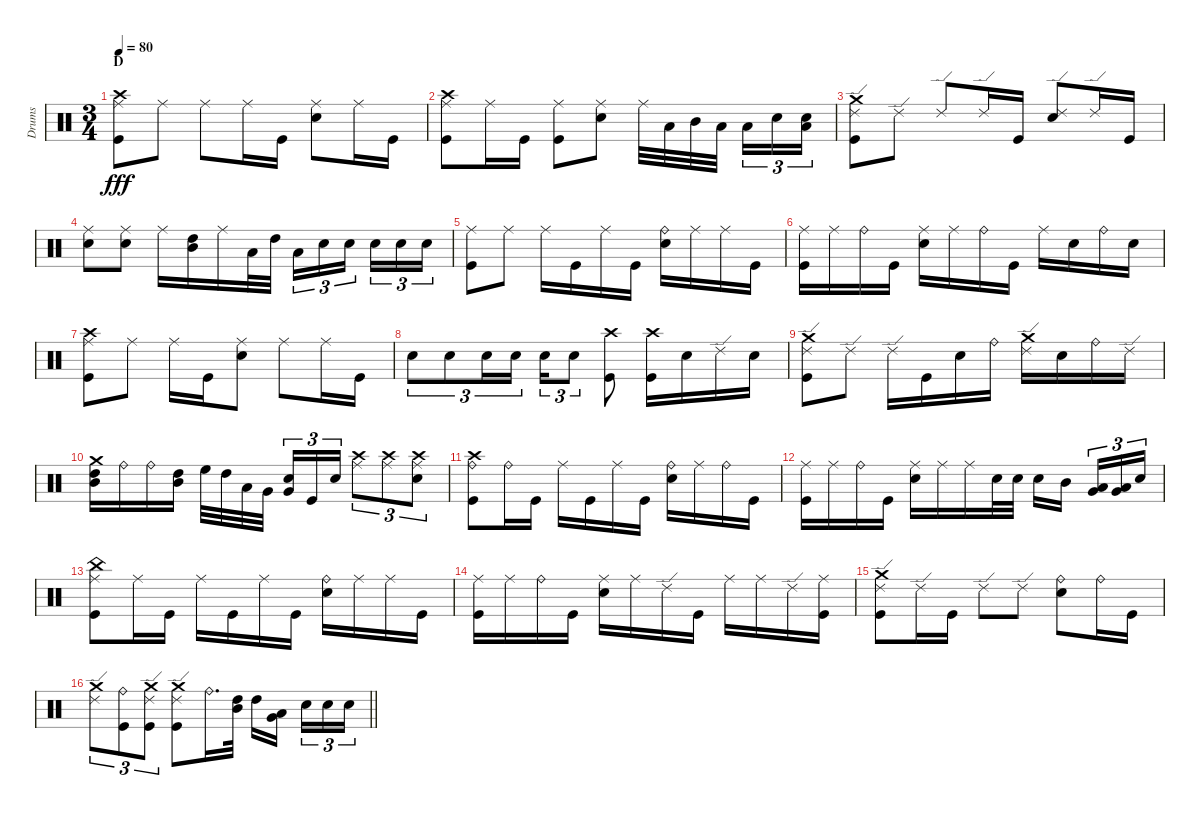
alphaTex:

\track ("Drums" "Drums") {instrument percussion}
\staff {score}
\articulation defaults
\ts (3 4)
\section ("" "D")
\tempo 80
\clef neutral
\ks c
("Ride (middle)" "Crash high (hit)" "Kick (hit)").8{dy fff} "Ride (middle)".8 "Ride (middle)".8 "Ride (middle)".16 "Kick (hit)".16 ("Ride (middle)" "Snare (hit) 2").8 "Ride (middle)".16 "Kick (hit)".16 |
("Ride (middle)" "Crash high (hit)" "Kick (hit)").8 "Ride (middle)".16 "Kick (hit)".16 ("Ride (middle)" "Kick (hit)").8 ("Ride (middle)" "Snare (hit) 2").8 "Ride (middle)".32 "Low Tom (hit)".32 "Mid Tom (hit)".32 "Low Tom (hit)".32 "Low Floor Tom (hit)".16{tu (3 2)} "Snare (hit) 2".16{tu (3 2)} ("Low Floor Tom (hit)" "Snare (hit) 2").16{tu (3 2)} |
("Ride (edge) 2" "Crash medium (hit)" "Kick (hit)").8 "Ride (edge) 2".8 "Ride (edge) 2".8 "Ride (edge) 2".16 "Kick (hit)".16 ("Ride (edge) 2" "Snare (hit) 2").8 "Ride (edge) 2".16 "Kick (hit)".16 |
("Ride (middle)" "Snare (hit) 2").8 ("Ride (middle)" "Snare (hit) 2").8 "Ride (middle)".16 ("High Tom (hit)" "Mid Tom (hit)").16 "Ride (middle)".16 "Low Tom (hit)".32 "High Tom (hit)".32 "Low Floor Tom (hit)".16{tu (3 2)} "Snare (hit) 2".16{tu (3 2)} "Snare (hit) 2".16{tu (3 2)} "Snare (hit) 2".16{tu (3 2)} "Snare (hit) 2".16{tu (3 2)} "Snare (hit) 2".16{tu (3 2)} |
("Ride (middle)" "Kick (hit)").8 "Ride (middle)".8 "Ride (middle)".16 "Kick (hit)".16 "Ride (middle)".16 "Kick (hit)".16 ("Ride (bell)" "Snare (hit) 2").16 "Ride (middle)".16 "Ride (middle)".16 "Kick (hit)".16 |
("Ride (middle)" "Kick (hit)").16 "Ride (middle)".16 "Ride (bell)".16 "Kick (hit)".16 ("Ride (middle)" "Snare (hit) 2").16 "Ride (middle)".16 "Ride (bell)".16 "Kick (hit)".16 "Ride (middle)".16 "Snare (hit) 2".16 "Ride (bell)".16 "Snare (hit) 2".16 |
("Ride (middle)" "Crash high (hit)" "Kick (hit)").8 "Ride (middle)".8 "Ride (middle)".16 "Kick (hit)".16 ("Ride (middle)" "Snare (hit) 2").8 "Ride (middle)".8 "Ride (middle)".16 "Kick (hit)".16 |
"Snare (hit) 2".8{tu (3 2)} "Snare (hit) 2".8{tu (3 2)} "Snare (hit) 2".16{tu (3 2)} "Snare (hit) 2".16{tu (3 2)} "Snare (hit) 2".16{tu (3 2)} "Snare (hit) 2".8{tu (3 2)} ("Crash high (hit)" "Kick (hit)").8 ("Crash high (hit)" "Kick (hit)").16 "Snare (hit) 2".16 "Ride (edge) 2".16 "Snare (hit) 2".16 |
("Ride (edge) 2" "Crash medium (hit)" "Kick (hit)").8 "Ride (edge) 2".8 "Ride (edge) 2".16 "Kick (hit)".16 "Snare (hit) 2".16 "Ride (bell)".16 ("Ride (edge) 2" "Crash medium (hit)").16 "Snare (hit) 2".16 "Ride (bell)".16 "Ride (edge) 2".16 |
("Crash medium (hit)" "High Tom (hit)" "Mid Tom (hit)").16 "Ride (bell)".16 "Ride (bell)".16 ("High Tom (hit)" "Mid Tom (hit)").16 "High Floor Tom (hit)".32 "High Tom (hit)".32 "Low Tom (hit)".32 "Very Low Tom (hit)".32 ("Very Low Tom (hit)" "Snare (hit) 2").16{tu (3 2)} "Kick (hit)".16{tu (3 2)} "Snare (hit) 2".16{tu (3 2)} ("Ride (middle)" "Crash high (hit)").8{tu (3 2)} ("Ride (middle)" "Crash high (hit)").8{tu (3 2)} ("Ride (middle)" "Crash high (hit)" "Snare (hit) 2").8{tu (3 2)} |
("Ride (bell)" "Crash high (hit)" "Kick (hit)").8 "Ride (bell)".16 "Kick (hit)".16 "Ride (middle)".16 "Kick (hit)".16 "Ride (middle)".16 "Kick (hit)".16 ("Ride (bell)" "Snare (hit) 2").16 "Ride (middle)".16 "Ride (bell)".16 "Kick (hit)".16 |
("Ride (middle)" "Kick (hit)").16 "Ride (middle)".16 "Ride (bell)".16 "Kick (hit)".16 ("Ride (middle)" "Snare (hit) 2").16 "Ride (middle)".16 "Ride (middle)".16 "Snare (hit) 2".32 "Snare (hit) 2".32 "Snare (hit) 2".16 "Mid Tom (hit)".16 ("Very Low Tom (hit)" "Low Floor Tom (hit)").16{tu (3 2)} ("Very Low Tom (hit)" "Low Floor Tom (hit)").16{tu (3 2)} "Snare (hit) 2".16{tu (3 2)} |
("Ride (middle)" "China (hit)" "Kick (hit)").8 "Ride (middle)".16 "Kick (hit)".16 "Ride (middle)".16 "Kick (hit)".16 "Ride (middle)".16 "Kick (hit)".16 ("Ride (bell)" "Snare (hit) 2").16 "Ride (middle)".16 "Ride (middle)".16 "Kick (hit)".16 |
("Ride (middle)" "Kick (hit)").16 "Ride (middle)".16 "Ride (bell)".16 "Kick (hit)".16 ("Ride (middle)" "Snare (hit) 2").16 "Ride (middle)".16 "Ride (edge) 2".16 "Kick (hit)".16 "Ride (middle)".16 "Ride (middle)".16 "Ride (edge) 2".16 ("Ride (middle)" "Kick (hit)").16 |
("Ride (edge) 2" "Crash medium (hit)" "Kick (hit)").8 "Ride (edge) 2".16 "Kick (hit)".16 "Ride (edge) 2".8 "Ride (edge) 2".8 ("Ride (bell)" "Snare (hit) 2").8 "Ride (bell)".16 "Kick (hit)".16 |
\barLineRight lightlight
("Ride (edge) 2" "Crash medium (hit)").8{tu (3 2)} ("Ride (bell)" "Kick (hit)").8{tu (3 2)} ("Ride (edge) 2" "Crash medium (hit)" "Kick (hit)").8{tu (3 2)} ("Ride (edge) 2" "Crash medium (hit)" "Kick (hit)").8 "Ride (bell)".16{d} ("High Tom (hit)" "Mid Tom (hit)").32 "High Tom (hit)".16 ("Low Tom (hit)" "Very Low Tom (hit)").16 "Snare (hit) 2".16{tu (3 2)} "Snare (hit) 2".16{tu (3 2)} "Snare (hit) 2".16{tu (3 2)}
